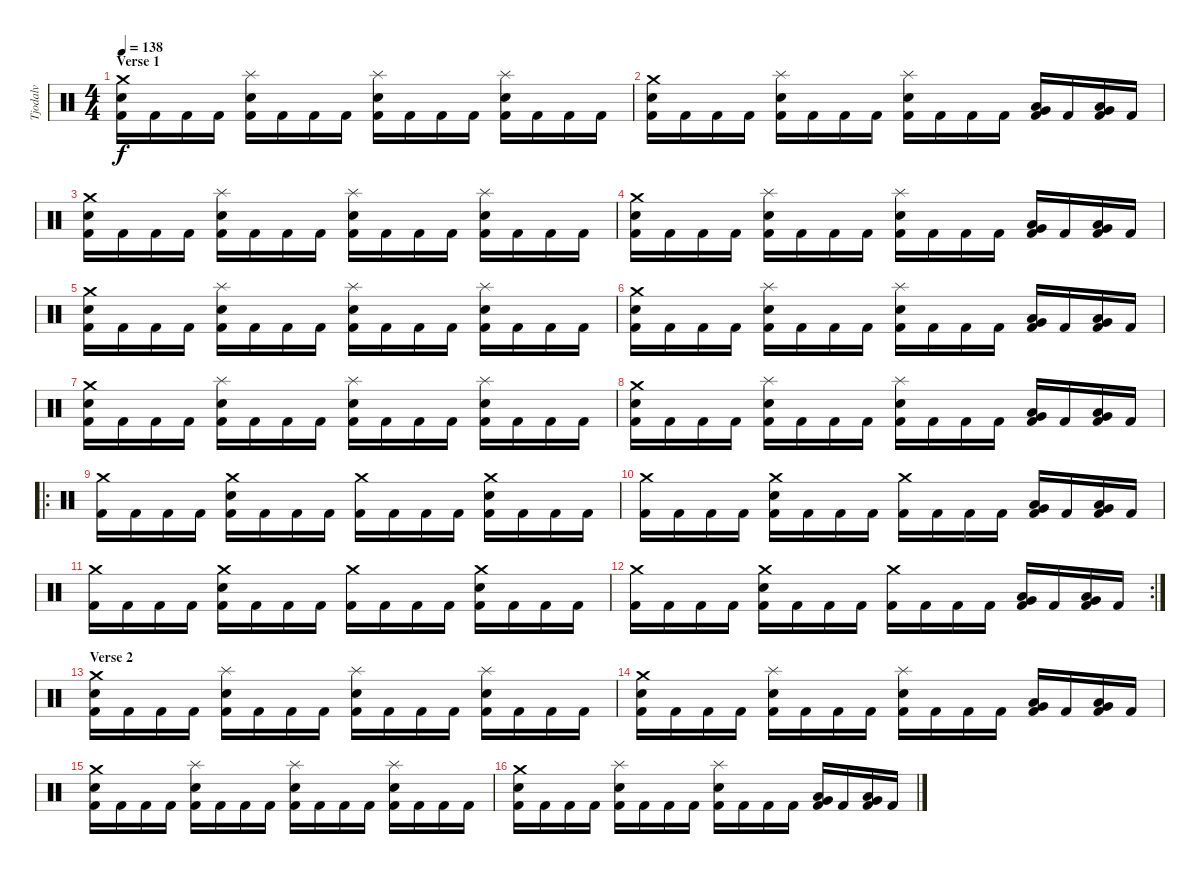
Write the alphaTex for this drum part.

\track ("Tjodalv" "Tjodalv") {instrument percussion}
\staff {score}
\articulation defaults
\ts (4 4)
\section ("" "Verse 1")
\tempo 138
\clef neutral
\ks c
("Crash medium (hit)" "Snare (hit) 2" "Kick (hit) 2").16{dy f} "Kick (hit) 2".16 "Kick (hit) 2".16 "Kick (hit) 2".16 ("Splash (hit)" "Snare (hit) 2" "Kick (hit) 2").16 "Kick (hit) 2".16 "Kick (hit) 2".16 "Kick (hit) 2".16 ("Splash (hit)" "Snare (hit) 2" "Kick (hit) 2").16 "Kick (hit) 2".16 "Kick (hit) 2".16 "Kick (hit) 2".16 ("Splash (hit)" "Snare (hit) 2" "Kick (hit) 2").16 "Kick (hit) 2".16 "Kick (hit) 2".16 "Kick (hit) 2".16 |
("Crash medium (hit)" "Snare (hit) 2" "Kick (hit) 2").16 "Kick (hit) 2".16 "Kick (hit) 2".16 "Kick (hit) 2".16 ("Splash (hit)" "Snare (hit) 2" "Kick (hit) 2").16 "Kick (hit) 2".16 "Kick (hit) 2".16 "Kick (hit) 2".16 ("Splash (hit)" "Snare (hit) 2" "Kick (hit) 2").16 "Kick (hit) 2".16 "Kick (hit) 2".16 "Kick (hit) 2".16 ("Low Tom (hit)" "Very Low Tom (hit)" "Kick (hit) 2").16 "Kick (hit) 2".16 ("Low Floor Tom (hit)" "Very Low Tom (hit)" "Kick (hit) 2").16 "Kick (hit) 2".16 |
("Crash medium (hit)" "Snare (hit) 2" "Kick (hit) 2").16 "Kick (hit) 2".16 "Kick (hit) 2".16 "Kick (hit) 2".16 ("Splash (hit)" "Snare (hit) 2" "Kick (hit) 2").16 "Kick (hit) 2".16 "Kick (hit) 2".16 "Kick (hit) 2".16 ("Splash (hit)" "Snare (hit) 2" "Kick (hit) 2").16 "Kick (hit) 2".16 "Kick (hit) 2".16 "Kick (hit) 2".16 ("Splash (hit)" "Snare (hit) 2" "Kick (hit) 2").16 "Kick (hit) 2".16 "Kick (hit) 2".16 "Kick (hit) 2".16 |
("Crash medium (hit)" "Snare (hit) 2" "Kick (hit) 2").16 "Kick (hit) 2".16 "Kick (hit) 2".16 "Kick (hit) 2".16 ("Splash (hit)" "Snare (hit) 2" "Kick (hit) 2").16 "Kick (hit) 2".16 "Kick (hit) 2".16 "Kick (hit) 2".16 ("Splash (hit)" "Snare (hit) 2" "Kick (hit) 2").16 "Kick (hit) 2".16 "Kick (hit) 2".16 "Kick (hit) 2".16 ("Low Tom (hit)" "Very Low Tom (hit)" "Kick (hit) 2").16 "Kick (hit) 2".16 ("Low Floor Tom (hit)" "Very Low Tom (hit)" "Kick (hit) 2").16 "Kick (hit) 2".16 |
("Crash medium (hit)" "Snare (hit) 2" "Kick (hit) 2").16 "Kick (hit) 2".16 "Kick (hit) 2".16 "Kick (hit) 2".16 ("Splash (hit)" "Snare (hit) 2" "Kick (hit) 2").16 "Kick (hit) 2".16 "Kick (hit) 2".16 "Kick (hit) 2".16 ("Splash (hit)" "Snare (hit) 2" "Kick (hit) 2").16 "Kick (hit) 2".16 "Kick (hit) 2".16 "Kick (hit) 2".16 ("Splash (hit)" "Snare (hit) 2" "Kick (hit) 2").16 "Kick (hit) 2".16 "Kick (hit) 2".16 "Kick (hit) 2".16 |
("Crash medium (hit)" "Snare (hit) 2" "Kick (hit) 2").16 "Kick (hit) 2".16 "Kick (hit) 2".16 "Kick (hit) 2".16 ("Splash (hit)" "Snare (hit) 2" "Kick (hit) 2").16 "Kick (hit) 2".16 "Kick (hit) 2".16 "Kick (hit) 2".16 ("Splash (hit)" "Snare (hit) 2" "Kick (hit) 2").16 "Kick (hit) 2".16 "Kick (hit) 2".16 "Kick (hit) 2".16 ("Low Tom (hit)" "Very Low Tom (hit)" "Kick (hit) 2").16 "Kick (hit) 2".16 ("Low Floor Tom (hit)" "Very Low Tom (hit)" "Kick (hit) 2").16 "Kick (hit) 2".16 |
("Crash medium (hit)" "Snare (hit) 2" "Kick (hit) 2").16 "Kick (hit) 2".16 "Kick (hit) 2".16 "Kick (hit) 2".16 ("Splash (hit)" "Snare (hit) 2" "Kick (hit) 2").16 "Kick (hit) 2".16 "Kick (hit) 2".16 "Kick (hit) 2".16 ("Splash (hit)" "Snare (hit) 2" "Kick (hit) 2").16 "Kick (hit) 2".16 "Kick (hit) 2".16 "Kick (hit) 2".16 ("Splash (hit)" "Snare (hit) 2" "Kick (hit) 2").16 "Kick (hit) 2".16 "Kick (hit) 2".16 "Kick (hit) 2".16 |
("Crash medium (hit)" "Snare (hit) 2" "Kick (hit) 2").16 "Kick (hit) 2".16 "Kick (hit) 2".16 "Kick (hit) 2".16 ("Splash (hit)" "Snare (hit) 2" "Kick (hit) 2").16 "Kick (hit) 2".16 "Kick (hit) 2".16 "Kick (hit) 2".16 ("Splash (hit)" "Snare (hit) 2" "Kick (hit) 2").16 "Kick (hit) 2".16 "Kick (hit) 2".16 "Kick (hit) 2".16 ("Low Tom (hit)" "Very Low Tom (hit)" "Kick (hit) 2").16 "Kick (hit) 2".16 ("Low Floor Tom (hit)" "Very Low Tom (hit)" "Kick (hit) 2").16 "Kick (hit) 2".16 |
\ro
("Crash medium (hit)" "Kick (hit) 2").16 "Kick (hit) 2".16 "Kick (hit) 2".16 "Kick (hit) 2".16 ("Crash medium (hit)" "Snare (hit) 2" "Kick (hit) 2").16 "Kick (hit) 2".16 "Kick (hit) 2".16 "Kick (hit) 2".16 ("Crash medium (hit)" "Kick (hit) 2").16 "Kick (hit) 2".16 "Kick (hit) 2".16 "Kick (hit) 2".16 ("Crash medium (hit)" "Snare (hit) 2" "Kick (hit) 2").16 "Kick (hit) 2".16 "Kick (hit) 2".16 "Kick (hit) 2".16 |
("Crash medium (hit)" "Kick (hit) 2").16 "Kick (hit) 2".16 "Kick (hit) 2".16 "Kick (hit) 2".16 ("Crash medium (hit)" "Snare (hit) 2" "Kick (hit) 2").16 "Kick (hit) 2".16 "Kick (hit) 2".16 "Kick (hit) 2".16 ("Crash medium (hit)" "Kick (hit) 2").16 "Kick (hit) 2".16 "Kick (hit) 2".16 "Kick (hit) 2".16 ("Low Tom (hit)" "Very Low Tom (hit)" "Kick (hit) 2").16 "Kick (hit) 2".16 ("Low Floor Tom (hit)" "Very Low Tom (hit)" "Kick (hit) 2").16 "Kick (hit) 2".16 |
("Crash medium (hit)" "Kick (hit) 2").16 "Kick (hit) 2".16 "Kick (hit) 2".16 "Kick (hit) 2".16 ("Crash medium (hit)" "Snare (hit) 2" "Kick (hit) 2").16 "Kick (hit) 2".16 "Kick (hit) 2".16 "Kick (hit) 2".16 ("Crash medium (hit)" "Kick (hit) 2").16 "Kick (hit) 2".16 "Kick (hit) 2".16 "Kick (hit) 2".16 ("Crash medium (hit)" "Snare (hit) 2" "Kick (hit) 2").16 "Kick (hit) 2".16 "Kick (hit) 2".16 "Kick (hit) 2".16 |
\rc 2
("Crash medium (hit)" "Kick (hit) 2").16 "Kick (hit) 2".16 "Kick (hit) 2".16 "Kick (hit) 2".16 ("Crash medium (hit)" "Snare (hit) 2" "Kick (hit) 2").16 "Kick (hit) 2".16 "Kick (hit) 2".16 "Kick (hit) 2".16 ("Crash medium (hit)" "Kick (hit) 2").16 "Kick (hit) 2".16 "Kick (hit) 2".16 "Kick (hit) 2".16 ("Low Tom (hit)" "Very Low Tom (hit)" "Kick (hit) 2").16 "Kick (hit) 2".16 ("Low Floor Tom (hit)" "Very Low Tom (hit)" "Kick (hit) 2").16 "Kick (hit) 2".16 |
\section ("" "Verse 2")
("Crash medium (hit)" "Snare (hit) 2" "Kick (hit) 2").16 "Kick (hit) 2".16 "Kick (hit) 2".16 "Kick (hit) 2".16 ("Splash (hit)" "Snare (hit) 2" "Kick (hit) 2").16 "Kick (hit) 2".16 "Kick (hit) 2".16 "Kick (hit) 2".16 ("Splash (hit)" "Snare (hit) 2" "Kick (hit) 2").16 "Kick (hit) 2".16 "Kick (hit) 2".16 "Kick (hit) 2".16 ("Splash (hit)" "Snare (hit) 2" "Kick (hit) 2").16 "Kick (hit) 2".16 "Kick (hit) 2".16 "Kick (hit) 2".16 |
("Crash medium (hit)" "Snare (hit) 2" "Kick (hit) 2").16 "Kick (hit) 2".16 "Kick (hit) 2".16 "Kick (hit) 2".16 ("Splash (hit)" "Snare (hit) 2" "Kick (hit) 2").16 "Kick (hit) 2".16 "Kick (hit) 2".16 "Kick (hit) 2".16 ("Splash (hit)" "Snare (hit) 2" "Kick (hit) 2").16 "Kick (hit) 2".16 "Kick (hit) 2".16 "Kick (hit) 2".16 ("Low Tom (hit)" "Very Low Tom (hit)" "Kick (hit) 2").16 "Kick (hit) 2".16 ("Low Floor Tom (hit)" "Very Low Tom (hit)" "Kick (hit) 2").16 "Kick (hit) 2".16 |
("Crash medium (hit)" "Snare (hit) 2" "Kick (hit) 2").16 "Kick (hit) 2".16 "Kick (hit) 2".16 "Kick (hit) 2".16 ("Splash (hit)" "Snare (hit) 2" "Kick (hit) 2").16 "Kick (hit) 2".16 "Kick (hit) 2".16 "Kick (hit) 2".16 ("Splash (hit)" "Snare (hit) 2" "Kick (hit) 2").16 "Kick (hit) 2".16 "Kick (hit) 2".16 "Kick (hit) 2".16 ("Splash (hit)" "Snare (hit) 2" "Kick (hit) 2").16 "Kick (hit) 2".16 "Kick (hit) 2".16 "Kick (hit) 2".16 |
("Crash medium (hit)" "Snare (hit) 2" "Kick (hit) 2").16 "Kick (hit) 2".16 "Kick (hit) 2".16 "Kick (hit) 2".16 ("Splash (hit)" "Snare (hit) 2" "Kick (hit) 2").16 "Kick (hit) 2".16 "Kick (hit) 2".16 "Kick (hit) 2".16 ("Splash (hit)" "Snare (hit) 2" "Kick (hit) 2").16 "Kick (hit) 2".16 "Kick (hit) 2".16 "Kick (hit) 2".16 ("Low Tom (hit)" "Very Low Tom (hit)" "Kick (hit) 2").16 "Kick (hit) 2".16 ("Low Floor Tom (hit)" "Very Low Tom (hit)" "Kick (hit) 2").16 "Kick (hit) 2".16
